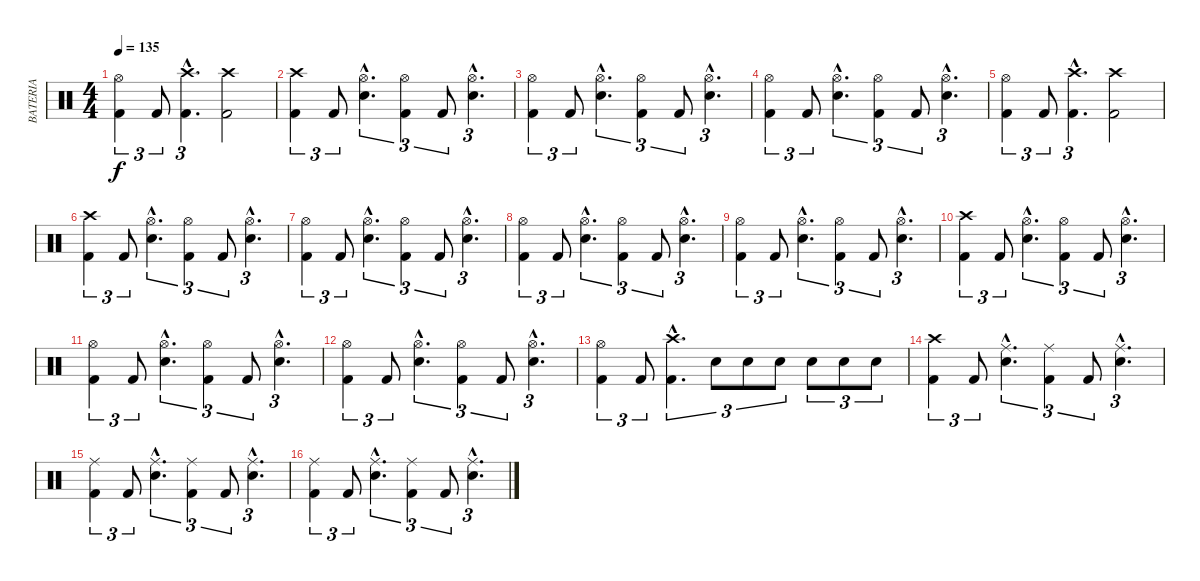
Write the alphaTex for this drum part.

\track ("BATERIA" "BATERIA") {instrument percussion}
\staff {score}
\articulation defaults
\ts (4 4)
\tempo 135
\clef neutral
\ks c
("Hi-Hat (open)" "Kick (hit) 2").4{tu (3 2) dy f} "Kick (hit) 2".8{tu (3 2)} ("Crash high (hit)"{hac} "Kick (hit) 2"{hac}).4{d tu (3 2)} ("Crash high (hit)" "Kick (hit) 2").2 |
("Crash high (hit)" "Kick (hit) 2").4{tu (3 2)} "Kick (hit) 2".8{tu (3 2)} ("Hi-Hat (open)"{hac} "Snare (hit) 2"{hac}).4{d tu (3 2)} ("Hi-Hat (open)" "Kick (hit) 2").4{tu (3 2)} "Kick (hit) 2".8{tu (3 2)} ("Hi-Hat (open)"{hac} "Snare (hit) 2"{hac}).4{d tu (3 2)} |
("Hi-Hat (open)" "Kick (hit) 2").4{tu (3 2)} "Kick (hit) 2".8{tu (3 2)} ("Hi-Hat (open)"{hac} "Snare (hit) 2"{hac}).4{d tu (3 2)} ("Hi-Hat (open)" "Kick (hit) 2").4{tu (3 2)} "Kick (hit) 2".8{tu (3 2)} ("Hi-Hat (open)"{hac} "Snare (hit) 2"{hac}).4{d tu (3 2)} |
("Hi-Hat (open)" "Kick (hit) 2").4{tu (3 2)} "Kick (hit) 2".8{tu (3 2)} ("Hi-Hat (open)"{hac} "Snare (hit) 2"{hac}).4{d tu (3 2)} ("Hi-Hat (open)" "Kick (hit) 2").4{tu (3 2)} "Kick (hit) 2".8{tu (3 2)} ("Hi-Hat (open)"{hac} "Snare (hit) 2"{hac}).4{d tu (3 2)} |
("Hi-Hat (open)" "Kick (hit) 2").4{tu (3 2)} "Kick (hit) 2".8{tu (3 2)} ("Crash high (hit)"{hac} "Kick (hit) 2"{hac}).4{d tu (3 2)} ("Crash high (hit)" "Kick (hit) 2").2 |
("Crash high (hit)" "Kick (hit) 2").4{tu (3 2)} "Kick (hit) 2".8{tu (3 2)} ("Hi-Hat (open)"{hac} "Snare (hit) 2"{hac}).4{d tu (3 2)} ("Hi-Hat (open)" "Kick (hit) 2").4{tu (3 2)} "Kick (hit) 2".8{tu (3 2)} ("Hi-Hat (open)"{hac} "Snare (hit) 2"{hac}).4{d tu (3 2)} |
("Hi-Hat (open)" "Kick (hit) 2").4{tu (3 2)} "Kick (hit) 2".8{tu (3 2)} ("Hi-Hat (open)"{hac} "Snare (hit) 2"{hac}).4{d tu (3 2)} ("Hi-Hat (open)" "Kick (hit) 2").4{tu (3 2)} "Kick (hit) 2".8{tu (3 2)} ("Hi-Hat (open)"{hac} "Snare (hit) 2"{hac}).4{d tu (3 2)} |
("Hi-Hat (open)" "Kick (hit) 2").4{tu (3 2)} "Kick (hit) 2".8{tu (3 2)} ("Hi-Hat (open)"{hac} "Snare (hit) 2"{hac}).4{d tu (3 2)} ("Hi-Hat (open)" "Kick (hit) 2").4{tu (3 2)} "Kick (hit) 2".8{tu (3 2)} ("Hi-Hat (open)"{hac} "Snare (hit) 2"{hac}).4{d tu (3 2)} |
("Hi-Hat (open)" "Kick (hit) 2").4{tu (3 2)} "Kick (hit) 2".8{tu (3 2)} ("Hi-Hat (open)"{hac} "Snare (hit) 2"{hac}).4{d tu (3 2)} ("Hi-Hat (open)" "Kick (hit) 2").4{tu (3 2)} "Kick (hit) 2".8{tu (3 2)} ("Hi-Hat (open)"{hac} "Snare (hit) 2"{hac}).4{d tu (3 2)} |
("Crash high (hit)" "Kick (hit) 2").4{tu (3 2)} "Kick (hit) 2".8{tu (3 2)} ("Hi-Hat (open)"{hac} "Snare (hit) 2"{hac}).4{d tu (3 2)} ("Hi-Hat (open)" "Kick (hit) 2").4{tu (3 2)} "Kick (hit) 2".8{tu (3 2)} ("Hi-Hat (open)"{hac} "Snare (hit) 2"{hac}).4{d tu (3 2)} |
("Hi-Hat (open)" "Kick (hit) 2").4{tu (3 2)} "Kick (hit) 2".8{tu (3 2)} ("Hi-Hat (open)"{hac} "Snare (hit) 2"{hac}).4{d tu (3 2)} ("Hi-Hat (open)" "Kick (hit) 2").4{tu (3 2)} "Kick (hit) 2".8{tu (3 2)} ("Hi-Hat (open)"{hac} "Snare (hit) 2"{hac}).4{d tu (3 2)} |
("Hi-Hat (open)" "Kick (hit) 2").4{tu (3 2)} "Kick (hit) 2".8{tu (3 2)} ("Hi-Hat (open)"{hac} "Snare (hit) 2"{hac}).4{d tu (3 2)} ("Hi-Hat (open)" "Kick (hit) 2").4{tu (3 2)} "Kick (hit) 2".8{tu (3 2)} ("Hi-Hat (open)"{hac} "Snare (hit) 2"{hac}).4{d tu (3 2)} |
("Hi-Hat (open)" "Kick (hit) 2").4{tu (3 2)} "Kick (hit) 2".8{tu (3 2)} ("Crash high (hit)"{hac} "Kick (hit) 2"{hac}).4{d tu (3 2)} "Snare (hit) 2".8{tu (3 2)} "Snare (hit) 2".8{tu (3 2)} "Snare (hit) 2".8{tu (3 2)} "Snare (hit) 2".8{tu (3 2)} "Snare (hit) 2".8{tu (3 2)} "Snare (hit) 2".8{tu (3 2)} |
("Crash high (hit)" "Kick (hit) 2").4{tu (3 2)} "Kick (hit) 2".8{tu (3 2)} ("Ride (middle)"{hac} "Snare (hit) 2"{hac}).4{d tu (3 2)} ("Ride (middle)" "Kick (hit) 2").4{tu (3 2)} "Kick (hit) 2".8{tu (3 2)} ("Ride (middle)"{hac} "Snare (hit) 2"{hac}).4{d tu (3 2)} |
("Ride (middle)" "Kick (hit) 2").4{tu (3 2)} "Kick (hit) 2".8{tu (3 2)} ("Ride (middle)"{hac} "Snare (hit) 2"{hac}).4{d tu (3 2)} ("Ride (middle)" "Kick (hit) 2").4{tu (3 2)} "Kick (hit) 2".8{tu (3 2)} ("Ride (middle)"{hac} "Snare (hit) 2"{hac}).4{d tu (3 2)} |
("Ride (middle)" "Kick (hit) 2").4{tu (3 2)} "Kick (hit) 2".8{tu (3 2)} ("Ride (middle)"{hac} "Snare (hit) 2"{hac}).4{d tu (3 2)} ("Ride (middle)" "Kick (hit) 2").4{tu (3 2)} "Kick (hit) 2".8{tu (3 2)} ("Ride (middle)"{hac} "Snare (hit) 2"{hac}).4{d tu (3 2)}
